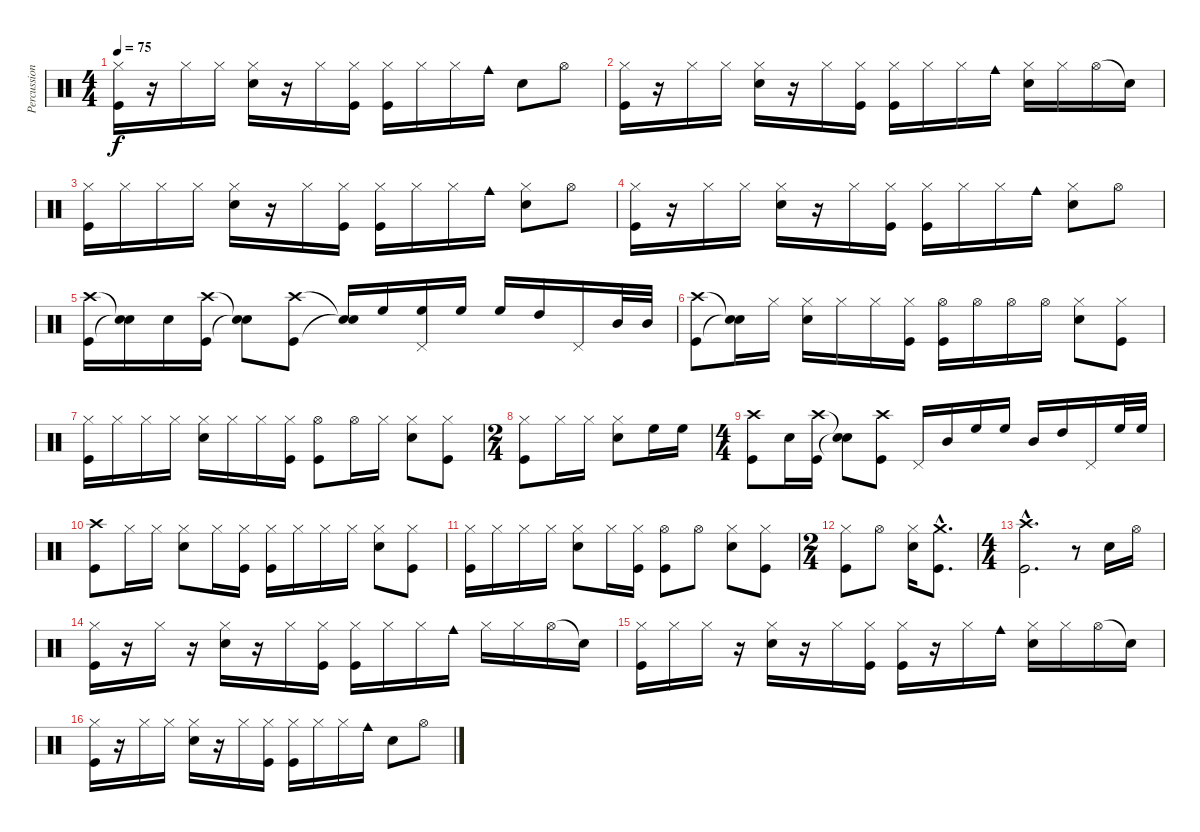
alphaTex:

\track ("Percussions" "Percussion") {instrument percussion}
\staff {score}
\articulation defaults
\ts (4 4)
\tempo 75
\clef neutral
\ks c
("Hi-Hat (closed)" "Kick (hit)").16{dy f} r.16 "Hi-Hat (closed)".16 "Hi-Hat (closed)".16 ("Hi-Hat (closed)" "Electric Snare (hit)").16 r.16 "Hi-Hat (closed)".16 ("Hi-Hat (closed)" "Kick (hit)").16 ("Hi-Hat (closed)" "Kick (hit)").16 "Hi-Hat (closed)".16 "Hi-Hat (closed)".16 "Cowbell medium (hit)".16 "Electric Snare (hit)".8 "Hi-Hat (open)".8 |
("Hi-Hat (closed)" "Kick (hit)").16 r.16 "Hi-Hat (closed)".16 "Hi-Hat (closed)".16 ("Hi-Hat (closed)" "Electric Snare (hit)").16 r.16 "Hi-Hat (closed)".16 ("Hi-Hat (closed)" "Kick (hit)").16 ("Hi-Hat (closed)" "Kick (hit)").16 "Hi-Hat (closed)".16 "Hi-Hat (closed)".16 "Cowbell medium (hit)".16 ("Hi-Hat (closed)" "Electric Snare (hit)").16 "Hi-Hat (closed)".16 "Hi-Hat (open)".16 "Snare (hit)"{t}.16 |
("Hi-Hat (closed)" "Kick (hit)").16 "Hi-Hat (closed)".16 "Hi-Hat (closed)".16 "Hi-Hat (closed)".16 ("Hi-Hat (closed)" "Electric Snare (hit)").16 r.16 "Hi-Hat (closed)".16 ("Hi-Hat (closed)" "Kick (hit)").16 ("Hi-Hat (closed)" "Kick (hit)").16 "Hi-Hat (closed)".16 "Hi-Hat (closed)".16 "Cowbell medium (hit)".16 ("Hi-Hat (closed)" "Electric Snare (hit)").8 "Hi-Hat (open)".8 |
("Hi-Hat (closed)" "Kick (hit)").16 r.16 "Hi-Hat (closed)".16 "Hi-Hat (closed)".16 ("Hi-Hat (closed)" "Electric Snare (hit)").16 r.16 "Hi-Hat (closed)".16 ("Hi-Hat (closed)" "Kick (hit)").16 ("Hi-Hat (closed)" "Kick (hit)").16 "Hi-Hat (closed)".16 "Hi-Hat (closed)".16 "Cowbell medium (hit)".16 ("Hi-Hat (closed)" "Electric Snare (hit)").8 "Hi-Hat (open)".8 |
("Crash high (hit)" "Kick (hit)").16 ("Snare (hit)"{t} "Snare (hit)"{t}).16 "Electric Snare (hit)".16 ("Crash high (hit)" "Kick (hit)").16 ("Snare (hit)"{t} "Snare (hit)"{t}).8 ("Crash high (hit)" "Kick (hit)").8 ("Snare (hit)"{t} "Snare (hit)"{t}).16 "High Floor Tom (hit)".16 ("High Floor Tom (hit)" "Pedal Hi-Hat (hit)").16 "High Floor Tom (hit)".16 "High Floor Tom (hit)".16 "High Tom (hit)".16 "Pedal Hi-Hat (hit)".16 "Mid Tom (hit)".32 "Mid Tom (hit)".32 |
("Crash high (hit)" "Kick (hit)").8 ("Snare (hit)"{t} "Snare (hit)"{t}).16 "Hi-Hat (closed)".16 ("Hi-Hat (closed)" "Electric Snare (hit)").16 "Hi-Hat (closed)".16 "Hi-Hat (closed)".16 ("Hi-Hat (closed)" "Kick (hit)").16 ("Hi-Hat (open)" "Kick (hit)").16 "Hi-Hat (open)".16 "Hi-Hat (open)".16 "Hi-Hat (open)".16 ("Hi-Hat (closed)" "Electric Snare (hit)").8 ("Hi-Hat (closed)" "Kick (hit)").8 |
("Hi-Hat (closed)" "Kick (hit)").16 "Hi-Hat (closed)".16 "Hi-Hat (closed)".16 "Hi-Hat (closed)".16 ("Hi-Hat (closed)" "Electric Snare (hit)").16 "Hi-Hat (closed)".16 "Hi-Hat (closed)".16 ("Hi-Hat (closed)" "Kick (hit)").16 ("Hi-Hat (open)" "Kick (hit)").8 "Hi-Hat (open)".16 "Hi-Hat (closed)".16 ("Hi-Hat (closed)" "Electric Snare (hit)").8 ("Hi-Hat (closed)" "Kick (hit)").8 |
\ts (2 4)
("Hi-Hat (closed)" "Kick (hit)").8 "Hi-Hat (closed)".16 "Hi-Hat (closed)".16 ("Hi-Hat (closed)" "Electric Snare (hit)").8 "High Floor Tom (hit)".16 "High Floor Tom (hit)".16 |
\ts (4 4)
("Crash high (hit)" "Kick (hit)").8 "Electric Snare (hit)".16 ("Crash high (hit)" "Kick (hit)").16 ("Snare (hit)"{t} "Snare (hit)"{t}).8 ("Crash high (hit)" "Kick (hit)").8 "Pedal Hi-Hat (hit)".16 "Mid Tom (hit)".16 "High Floor Tom (hit)".16 "High Floor Tom (hit)".16 "Mid Tom (hit)".16 "High Tom (hit)".16 "Pedal Hi-Hat (hit)".16 "High Floor Tom (hit)".32 "High Floor Tom (hit)".32 |
("Crash high (hit)" "Kick (hit)").8 "Hi-Hat (closed)".16 "Hi-Hat (closed)".16 ("Hi-Hat (closed)" "Electric Snare (hit)").8 "Hi-Hat (closed)".16 ("Hi-Hat (closed)" "Kick (hit)").16 ("Hi-Hat (closed)" "Kick (hit)").16 "Hi-Hat (closed)".16 "Hi-Hat (closed)".16 "Hi-Hat (closed)".16 ("Hi-Hat (closed)" "Electric Snare (hit)").8 ("Hi-Hat (closed)" "Kick (hit)").8 |
("Hi-Hat (closed)" "Kick (hit)").16 "Hi-Hat (closed)".16 "Hi-Hat (closed)".16 "Hi-Hat (closed)".16 ("Hi-Hat (closed)" "Electric Snare (hit)").8 "Hi-Hat (closed)".16 ("Hi-Hat (closed)" "Kick (hit)").16 ("Hi-Hat (open)" "Kick (hit)").8 "Hi-Hat (open)".8 ("Hi-Hat (closed)" "Electric Snare (hit)").8 ("Hi-Hat (closed)" "Kick (hit)").8 |
\ts (2 4)
("Hi-Hat (closed)" "Kick (hit)").8 "Hi-Hat (open)".8 ("Hi-Hat (closed)" "Electric Snare (hit)").16 ("Crash medium (hit)"{hac} "Kick (hit)"{hac}).8{d} |
\ts (4 4)
("Crash high (hit)"{hac} "Kick (hit)"{hac}).2{d} r.8 "Electric Snare (hit)".16 "Hi-Hat (open)".16 |
("Hi-Hat (closed)" "Kick (hit)").16 r.16 "Hi-Hat (closed)".16 r.16 ("Hi-Hat (closed)" "Electric Snare (hit)").16 r.16 "Hi-Hat (closed)".16 ("Hi-Hat (closed)" "Kick (hit)").16 ("Hi-Hat (closed)" "Kick (hit)").16 "Hi-Hat (closed)".16 "Hi-Hat (closed)".16 "Cowbell medium (hit)".16 "Hi-Hat (closed)".16 "Hi-Hat (closed)".16 "Hi-Hat (open)".16 "Snare (hit)"{t}.16 |
("Hi-Hat (closed)" "Kick (hit)").16 "Hi-Hat (closed)".16 "Hi-Hat (closed)".16 r.16 ("Hi-Hat (closed)" "Electric Snare (hit)").16 r.16 "Hi-Hat (closed)".16 ("Hi-Hat (closed)" "Kick (hit)").16 ("Hi-Hat (closed)" "Kick (hit)").16 r.16 "Hi-Hat (closed)".16 "Cowbell medium (hit)".16 ("Hi-Hat (closed)" "Electric Snare (hit)").16 "Hi-Hat (closed)".16 "Hi-Hat (open)".16 "Snare (hit)"{t}.16 |
("Hi-Hat (closed)" "Kick (hit)").16 r.16 "Hi-Hat (closed)".16 "Hi-Hat (closed)".16 ("Hi-Hat (closed)" "Electric Snare (hit)").16 r.16 "Hi-Hat (closed)".16 ("Hi-Hat (closed)" "Kick (hit)").16 ("Hi-Hat (closed)" "Kick (hit)").16 "Hi-Hat (closed)".16 "Hi-Hat (closed)".16 "Cowbell medium (hit)".16 "Electric Snare (hit)".8 "Hi-Hat (open)".8
